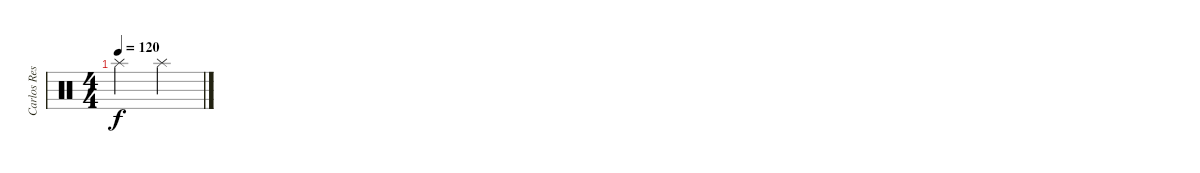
\track ("Carlos Restrepo" "Carlos Res") {instrument percussion}
\staff {score}
\articulation defaults
\ts (4 4)
\tempo 120
\clef neutral
\ks c "Splash (hit)".2{dy f} "Splash (hit)".2
